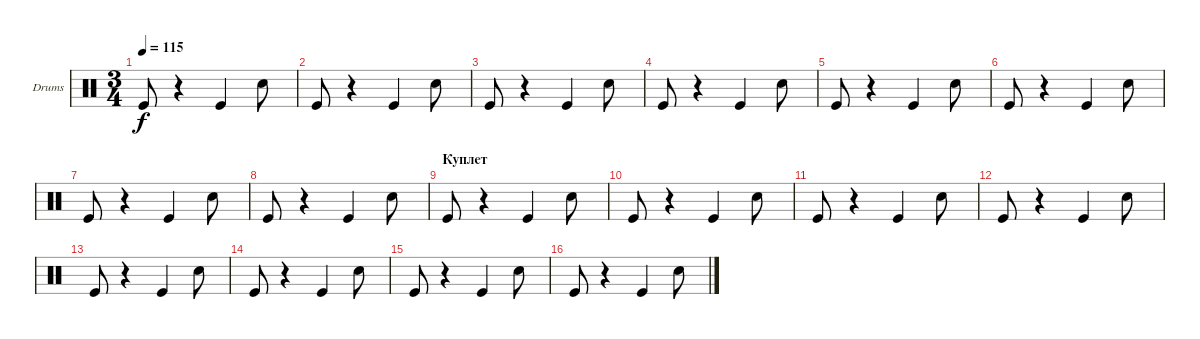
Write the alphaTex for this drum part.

\defaultSystemsLayout 4
\bracketExtendMode groupsimilarinstruments
\firstSystemTrackNameOrientation horizontal
\otherSystemsTrackNameOrientation horizontal
\track ("Е. Кулаков" "Drums") {instrument percussion}
\staff {score}
\articulation defaults
\ts (3 4)
\tempo 115
\clef neutral
\ks c "Kick (hit)".8{dy f}
r.4 "Kick (hit)".4 "Snare (hit) 2".8 |
"Kick (hit)".8 r.4 "Kick (hit)".4 "Snare (hit) 2".8 |
"Kick (hit)".8 r.4 "Kick (hit)".4 "Snare (hit) 2".8 |
"Kick (hit)".8 r.4 "Kick (hit)".4 "Snare (hit) 2".8 |
"Kick (hit)".8 r.4 "Kick (hit)".4 "Snare (hit) 2".8 |
"Kick (hit)".8 r.4 "Kick (hit)".4 "Snare (hit) 2".8 |
"Kick (hit)".8 r.4 "Kick (hit)".4 "Snare (hit) 2".8 |
"Kick (hit)".8 r.4 "Kick (hit)".4 "Snare (hit) 2".8 |
\section ("" "Куплет")
"Kick (hit)".8 r.4 "Kick (hit)".4 "Snare (hit) 2".8 |
"Kick (hit)".8 r.4 "Kick (hit)".4 "Snare (hit) 2".8 |
"Kick (hit)".8 r.4 "Kick (hit)".4 "Snare (hit) 2".8 |
"Kick (hit)".8 r.4 "Kick (hit)".4 "Snare (hit) 2".8 |
"Kick (hit)".8 r.4 "Kick (hit)".4 "Snare (hit) 2".8 |
"Kick (hit)".8 r.4 "Kick (hit)".4 "Snare (hit) 2".8 |
"Kick (hit)".8 r.4 "Kick (hit)".4 "Snare (hit) 2".8 |
"Kick (hit)".8 r.4 "Kick (hit)".4 "Snare (hit) 2".8
